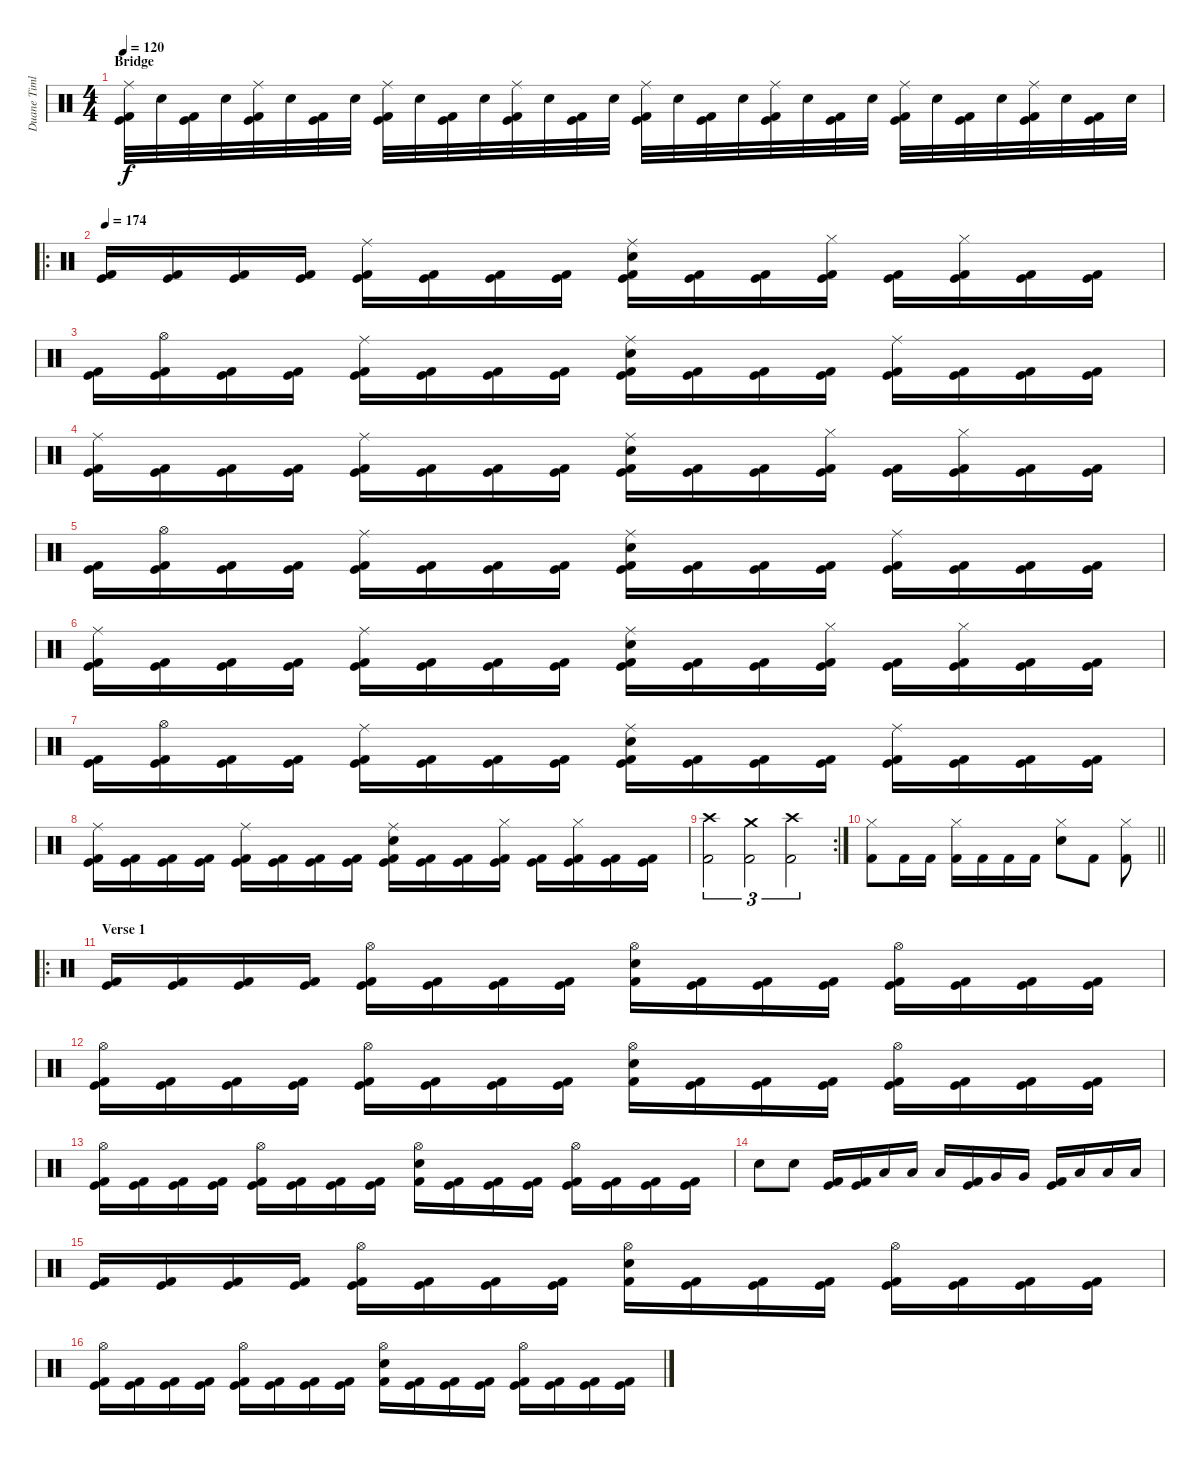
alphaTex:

\track ("Duane Timlin" "Duane Timl") {instrument percussion}
\staff {score}
\articulation defaults
\ts (4 4)
\section ("" "Bridge")
\tempo 120
\clef neutral
\ks c
("Ride (middle)" "Kick (hit)" "Kick (hit) 2").32{dy f} "Snare (hit) 2".32 ("Kick (hit)" "Kick (hit) 2").32 "Snare (hit) 2".32 ("Ride (middle)" "Kick (hit)" "Kick (hit) 2").32 "Snare (hit) 2".32 ("Kick (hit)" "Kick (hit) 2").32 "Snare (hit) 2".32 ("Ride (middle)" "Kick (hit)" "Kick (hit) 2").32 "Snare (hit) 2".32 ("Kick (hit)" "Kick (hit) 2").32 "Snare (hit) 2".32 ("Ride (middle)" "Kick (hit)" "Kick (hit) 2").32 "Snare (hit) 2".32 ("Kick (hit)" "Kick (hit) 2").32 "Snare (hit) 2".32 ("Ride (middle)" "Kick (hit)" "Kick (hit) 2").32 "Snare (hit) 2".32 ("Kick (hit)" "Kick (hit) 2").32 "Snare (hit) 2".32 ("Ride (middle)" "Kick (hit)" "Kick (hit) 2").32 "Snare (hit) 2".32 ("Kick (hit)" "Kick (hit) 2").32 "Snare (hit) 2".32 ("Ride (middle)" "Kick (hit)" "Kick (hit) 2").32 "Snare (hit) 2".32 ("Kick (hit)" "Kick (hit) 2").32 "Snare (hit) 2".32 ("Ride (middle)" "Kick (hit)" "Kick (hit) 2").32 "Snare (hit) 2".32 ("Kick (hit)" "Kick (hit) 2").32 "Snare (hit) 2".32 |
\ro
\tempo 174
("Kick (hit)" "Kick (hit) 2").16 ("Kick (hit)" "Kick (hit) 2").16 ("Kick (hit)" "Kick (hit) 2").16 ("Kick (hit)" "Kick (hit) 2").16 ("Ride (middle)" "Kick (hit)" "Kick (hit) 2").16 ("Kick (hit)" "Kick (hit) 2").16 ("Kick (hit)" "Kick (hit) 2").16 ("Kick (hit)" "Kick (hit) 2").16 ("Ride (middle)" "Snare (hit) 2" "Kick (hit)" "Kick (hit) 2").16 ("Kick (hit)" "Kick (hit) 2").16 ("Kick (hit)" "Kick (hit) 2").16 ("Hi-Hat (closed)" "Kick (hit)" "Kick (hit) 2").16 ("Kick (hit)" "Kick (hit) 2").16 ("Hi-Hat (closed)" "Kick (hit)" "Kick (hit) 2").16 ("Kick (hit)" "Kick (hit) 2").16 ("Kick (hit)" "Kick (hit) 2").16 |
("Kick (hit)" "Kick (hit) 2").16 ("Hi-Hat (open)" "Kick (hit)" "Kick (hit) 2").16 ("Kick (hit)" "Kick (hit) 2").16 ("Kick (hit)" "Kick (hit) 2").16 ("Ride (middle)" "Kick (hit)" "Kick (hit) 2").16 ("Kick (hit)" "Kick (hit) 2").16 ("Kick (hit)" "Kick (hit) 2").16 ("Kick (hit)" "Kick (hit) 2").16 ("Ride (middle)" "Snare (hit) 2" "Kick (hit)" "Kick (hit) 2").16 ("Kick (hit)" "Kick (hit) 2").16 ("Kick (hit)" "Kick (hit) 2").16 ("Kick (hit)" "Kick (hit) 2").16 ("Ride (middle)" "Kick (hit)" "Kick (hit) 2").16 ("Kick (hit)" "Kick (hit) 2").16 ("Kick (hit)" "Kick (hit) 2").16 ("Kick (hit)" "Kick (hit) 2").16 |
("Ride (middle)" "Kick (hit)" "Kick (hit) 2").16 ("Kick (hit)" "Kick (hit) 2").16 ("Kick (hit)" "Kick (hit) 2").16 ("Kick (hit)" "Kick (hit) 2").16 ("Ride (middle)" "Kick (hit)" "Kick (hit) 2").16 ("Kick (hit)" "Kick (hit) 2").16 ("Kick (hit)" "Kick (hit) 2").16 ("Kick (hit)" "Kick (hit) 2").16 ("Ride (middle)" "Snare (hit) 2" "Kick (hit)" "Kick (hit) 2").16 ("Kick (hit)" "Kick (hit) 2").16 ("Kick (hit)" "Kick (hit) 2").16 ("Hi-Hat (closed)" "Kick (hit)" "Kick (hit) 2").16 ("Kick (hit)" "Kick (hit) 2").16 ("Hi-Hat (closed)" "Kick (hit)" "Kick (hit) 2").16 ("Kick (hit)" "Kick (hit) 2").16 ("Kick (hit)" "Kick (hit) 2").16 |
("Kick (hit)" "Kick (hit) 2").16 ("Hi-Hat (open)" "Kick (hit)" "Kick (hit) 2").16 ("Kick (hit)" "Kick (hit) 2").16 ("Kick (hit)" "Kick (hit) 2").16 ("Ride (middle)" "Kick (hit)" "Kick (hit) 2").16 ("Kick (hit)" "Kick (hit) 2").16 ("Kick (hit)" "Kick (hit) 2").16 ("Kick (hit)" "Kick (hit) 2").16 ("Ride (middle)" "Snare (hit) 2" "Kick (hit)" "Kick (hit) 2").16 ("Kick (hit)" "Kick (hit) 2").16 ("Kick (hit)" "Kick (hit) 2").16 ("Kick (hit)" "Kick (hit) 2").16 ("Ride (middle)" "Kick (hit)" "Kick (hit) 2").16 ("Kick (hit)" "Kick (hit) 2").16 ("Kick (hit)" "Kick (hit) 2").16 ("Kick (hit)" "Kick (hit) 2").16 |
("Ride (middle)" "Kick (hit)" "Kick (hit) 2").16 ("Kick (hit)" "Kick (hit) 2").16 ("Kick (hit)" "Kick (hit) 2").16 ("Kick (hit)" "Kick (hit) 2").16 ("Ride (middle)" "Kick (hit)" "Kick (hit) 2").16 ("Kick (hit)" "Kick (hit) 2").16 ("Kick (hit)" "Kick (hit) 2").16 ("Kick (hit)" "Kick (hit) 2").16 ("Ride (middle)" "Snare (hit) 2" "Kick (hit)" "Kick (hit) 2").16 ("Kick (hit)" "Kick (hit) 2").16 ("Kick (hit)" "Kick (hit) 2").16 ("Hi-Hat (closed)" "Kick (hit)" "Kick (hit) 2").16 ("Kick (hit)" "Kick (hit) 2").16 ("Hi-Hat (closed)" "Kick (hit)" "Kick (hit) 2").16 ("Kick (hit)" "Kick (hit) 2").16 ("Kick (hit)" "Kick (hit) 2").16 |
("Kick (hit)" "Kick (hit) 2").16 ("Hi-Hat (open)" "Kick (hit)" "Kick (hit) 2").16 ("Kick (hit)" "Kick (hit) 2").16 ("Kick (hit)" "Kick (hit) 2").16 ("Ride (middle)" "Kick (hit)" "Kick (hit) 2").16 ("Kick (hit)" "Kick (hit) 2").16 ("Kick (hit)" "Kick (hit) 2").16 ("Kick (hit)" "Kick (hit) 2").16 ("Ride (middle)" "Snare (hit) 2" "Kick (hit)" "Kick (hit) 2").16 ("Kick (hit)" "Kick (hit) 2").16 ("Kick (hit)" "Kick (hit) 2").16 ("Kick (hit)" "Kick (hit) 2").16 ("Ride (middle)" "Kick (hit)" "Kick (hit) 2").16 ("Kick (hit)" "Kick (hit) 2").16 ("Kick (hit)" "Kick (hit) 2").16 ("Kick (hit)" "Kick (hit) 2").16 |
("Ride (middle)" "Kick (hit)" "Kick (hit) 2").16 ("Kick (hit)" "Kick (hit) 2").16 ("Kick (hit)" "Kick (hit) 2").16 ("Kick (hit)" "Kick (hit) 2").16 ("Ride (middle)" "Kick (hit)" "Kick (hit) 2").16 ("Kick (hit)" "Kick (hit) 2").16 ("Kick (hit)" "Kick (hit) 2").16 ("Kick (hit)" "Kick (hit) 2").16 ("Ride (middle)" "Snare (hit) 2" "Kick (hit)" "Kick (hit) 2").16 ("Kick (hit)" "Kick (hit) 2").16 ("Kick (hit)" "Kick (hit) 2").16 ("Hi-Hat (closed)" "Kick (hit)" "Kick (hit) 2").16 ("Kick (hit)" "Kick (hit) 2").16 ("Hi-Hat (closed)" "Kick (hit)" "Kick (hit) 2").16 ("Kick (hit)" "Kick (hit) 2").16 ("Kick (hit)" "Kick (hit) 2").16 |
\rc 2
("Crash high (hit)" "Kick (hit) 2").2{tu (3 2)} ("Crash medium (hit)" "Kick (hit) 2").2{tu (3 2)} ("Crash high (hit)" "Kick (hit) 2").2{tu (3 2)} |
\barLineRight lightlight
("Hi-Hat (closed)" "Kick (hit) 2").8 "Kick (hit) 2".16 "Kick (hit) 2".16 ("Hi-Hat (closed)" "Kick (hit) 2").16 "Kick (hit) 2".16 "Kick (hit) 2".16 "Kick (hit) 2".16 ("Hi-Hat (closed)" "Snare (hit) 2").8 "Kick (hit) 2".8 ("Hi-Hat (closed)" "Kick (hit) 2").8 |
\ro
\section ("" "Verse 1")
("Kick (hit)" "Kick (hit) 2").16 ("Kick (hit)" "Kick (hit) 2").16 ("Kick (hit)" "Kick (hit) 2").16 ("Kick (hit)" "Kick (hit) 2").16 ("Hi-Hat (open)" "Kick (hit)" "Kick (hit) 2").16 ("Kick (hit)" "Kick (hit) 2").16 ("Kick (hit)" "Kick (hit) 2").16 ("Kick (hit)" "Kick (hit) 2").16 ("Hi-Hat (open)" "Snare (hit) 2" "Kick (hit) 2").16 ("Kick (hit)" "Kick (hit) 2").16 ("Kick (hit)" "Kick (hit) 2").16 ("Kick (hit)" "Kick (hit) 2").16 ("Hi-Hat (open)" "Kick (hit)" "Kick (hit) 2").16 ("Kick (hit)" "Kick (hit) 2").16 ("Kick (hit)" "Kick (hit) 2").16 ("Kick (hit)" "Kick (hit) 2").16 |
("Hi-Hat (open)" "Kick (hit)" "Kick (hit) 2").16 ("Kick (hit)" "Kick (hit) 2").16 ("Kick (hit)" "Kick (hit) 2").16 ("Kick (hit)" "Kick (hit) 2").16 ("Hi-Hat (open)" "Kick (hit)" "Kick (hit) 2").16 ("Kick (hit)" "Kick (hit) 2").16 ("Kick (hit)" "Kick (hit) 2").16 ("Kick (hit)" "Kick (hit) 2").16 ("Hi-Hat (open)" "Snare (hit) 2" "Kick (hit) 2").16 ("Kick (hit)" "Kick (hit) 2").16 ("Kick (hit)" "Kick (hit) 2").16 ("Kick (hit)" "Kick (hit) 2").16 ("Hi-Hat (open)" "Kick (hit)" "Kick (hit) 2").16 ("Kick (hit)" "Kick (hit) 2").16 ("Kick (hit)" "Kick (hit) 2").16 ("Kick (hit)" "Kick (hit) 2").16 |
("Hi-Hat (open)" "Kick (hit)" "Kick (hit) 2").16 ("Kick (hit)" "Kick (hit) 2").16 ("Kick (hit)" "Kick (hit) 2").16 ("Kick (hit)" "Kick (hit) 2").16 ("Hi-Hat (open)" "Kick (hit)" "Kick (hit) 2").16 ("Kick (hit)" "Kick (hit) 2").16 ("Kick (hit)" "Kick (hit) 2").16 ("Kick (hit)" "Kick (hit) 2").16 ("Hi-Hat (open)" "Snare (hit) 2" "Kick (hit) 2").16 ("Kick (hit)" "Kick (hit) 2").16 ("Kick (hit)" "Kick (hit) 2").16 ("Kick (hit)" "Kick (hit) 2").16 ("Hi-Hat (open)" "Kick (hit)" "Kick (hit) 2").16 ("Kick (hit)" "Kick (hit) 2").16 ("Kick (hit)" "Kick (hit) 2").16 ("Kick (hit)" "Kick (hit) 2").16 |
"Snare (hit) 2".8 "Snare (hit) 2".8 ("Kick (hit)" "Kick (hit) 2").16 ("Kick (hit)" "Kick (hit) 2").16 "Low Floor Tom (hit)".16 "Low Floor Tom (hit)".16 "Low Floor Tom (hit)".16 ("Kick (hit)" "Kick (hit) 2").16 "Very Low Tom (hit)".16 "Very Low Tom (hit)".16 ("Kick (hit)" "Kick (hit) 2").16 "Low Tom (hit)".16 "Low Tom (hit)".16 "Low Tom (hit)".16 |
("Kick (hit)" "Kick (hit) 2").16 ("Kick (hit)" "Kick (hit) 2").16 ("Kick (hit)" "Kick (hit) 2").16 ("Kick (hit)" "Kick (hit) 2").16 ("Hi-Hat (open)" "Kick (hit)" "Kick (hit) 2").16 ("Kick (hit)" "Kick (hit) 2").16 ("Kick (hit)" "Kick (hit) 2").16 ("Kick (hit)" "Kick (hit) 2").16 ("Hi-Hat (open)" "Snare (hit) 2" "Kick (hit) 2").16 ("Kick (hit)" "Kick (hit) 2").16 ("Kick (hit)" "Kick (hit) 2").16 ("Kick (hit)" "Kick (hit) 2").16 ("Hi-Hat (open)" "Kick (hit)" "Kick (hit) 2").16 ("Kick (hit)" "Kick (hit) 2").16 ("Kick (hit)" "Kick (hit) 2").16 ("Kick (hit)" "Kick (hit) 2").16 |
("Hi-Hat (open)" "Kick (hit)" "Kick (hit) 2").16 ("Kick (hit)" "Kick (hit) 2").16 ("Kick (hit)" "Kick (hit) 2").16 ("Kick (hit)" "Kick (hit) 2").16 ("Hi-Hat (open)" "Kick (hit)" "Kick (hit) 2").16 ("Kick (hit)" "Kick (hit) 2").16 ("Kick (hit)" "Kick (hit) 2").16 ("Kick (hit)" "Kick (hit) 2").16 ("Hi-Hat (open)" "Snare (hit) 2" "Kick (hit) 2").16 ("Kick (hit)" "Kick (hit) 2").16 ("Kick (hit)" "Kick (hit) 2").16 ("Kick (hit)" "Kick (hit) 2").16 ("Hi-Hat (open)" "Kick (hit)" "Kick (hit) 2").16 ("Kick (hit)" "Kick (hit) 2").16 ("Kick (hit)" "Kick (hit) 2").16 ("Kick (hit)" "Kick (hit) 2").16
